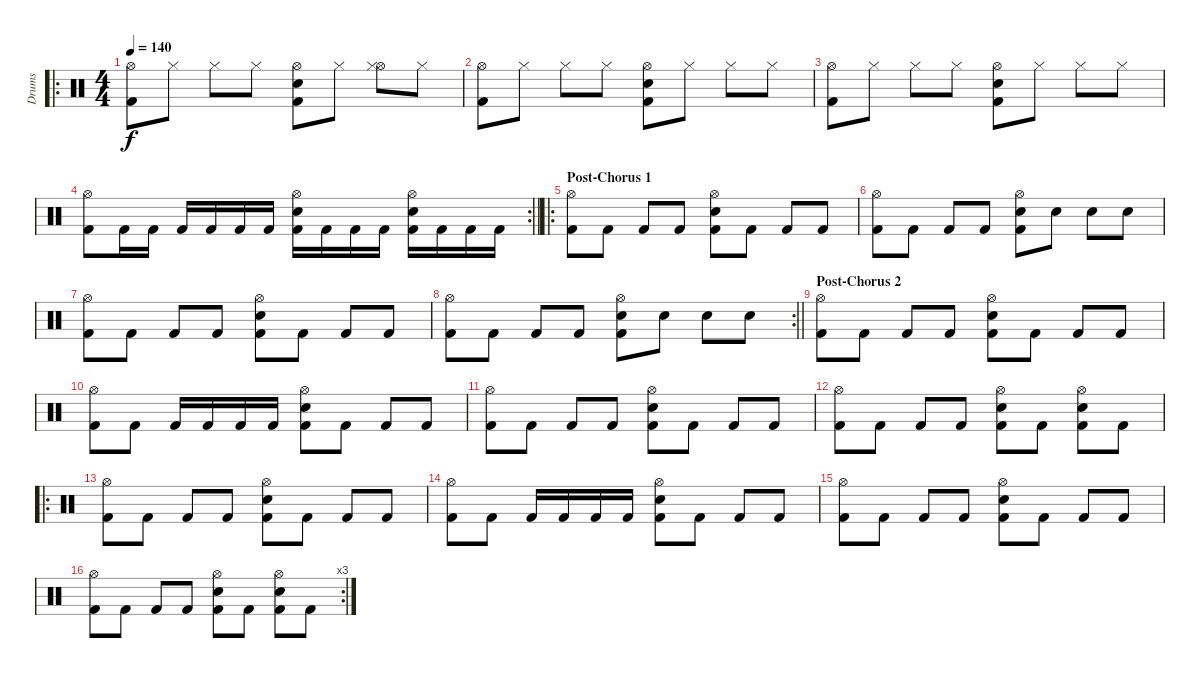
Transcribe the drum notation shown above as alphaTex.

\track ("Drums" "Drums") {instrument percussion}
\staff {score}
\articulation defaults
\ro
\ts (4 4)
\tempo 140
\clef neutral
\ks c
("Hi-Hat (open)" "Kick (hit) 2").8{dy f} "Hi-Hat (closed)".8 "Hi-Hat (closed)".8 "Hi-Hat (closed)".8 ("Hi-Hat (open)" "Snare (hit) 2" "Kick (hit) 2").8 "Hi-Hat (closed)".8 ("Hi-Hat (open)" "Hi-Hat (closed)").8 "Hi-Hat (closed)".8 |
("Hi-Hat (open)" "Kick (hit) 2").8 "Hi-Hat (closed)".8 "Hi-Hat (closed)".8 "Hi-Hat (closed)".8 ("Hi-Hat (open)" "Snare (hit) 2" "Kick (hit) 2").8 "Hi-Hat (closed)".8 "Hi-Hat (closed)".8 "Hi-Hat (closed)".8 |
("Hi-Hat (open)" "Kick (hit) 2").8 "Hi-Hat (closed)".8 "Hi-Hat (closed)".8 "Hi-Hat (closed)".8 ("Hi-Hat (open)" "Snare (hit) 2" "Kick (hit) 2").8 "Hi-Hat (closed)".8 "Hi-Hat (closed)".8 "Hi-Hat (closed)".8 |
\rc 2
\barLineRight lightlight
("Hi-Hat (open)" "Kick (hit) 2").8 "Kick (hit) 2".16 "Kick (hit) 2".16 "Kick (hit) 2".16 "Kick (hit) 2".16 "Kick (hit) 2".16 "Kick (hit) 2".16 ("Hi-Hat (open)" "Snare (hit) 2" "Kick (hit) 2").16 "Kick (hit) 2".16 "Kick (hit) 2".16 "Kick (hit) 2".16 ("Hi-Hat (open)" "Snare (hit) 2" "Kick (hit) 2").16 "Kick (hit) 2".16 "Kick (hit) 2".16 "Kick (hit) 2".16 |
\ro
\section ("" "Post-Chorus 1")
("Hi-Hat (open)" "Kick (hit) 2").8 "Kick (hit) 2".8 "Kick (hit) 2".8 "Kick (hit) 2".8 ("Hi-Hat (open)" "Snare (hit) 2" "Kick (hit) 2").8 "Kick (hit) 2".8 "Kick (hit) 2".8 "Kick (hit) 2".8 |
("Hi-Hat (open)" "Kick (hit) 2").8 "Kick (hit) 2".8 "Kick (hit) 2".8 "Kick (hit) 2".8 ("Hi-Hat (open)" "Snare (hit) 2" "Kick (hit) 2").8 "Snare (hit) 2".8 "Snare (hit) 2".8 "Snare (hit) 2".8 |
("Hi-Hat (open)" "Kick (hit) 2").8 "Kick (hit) 2".8 "Kick (hit) 2".8 "Kick (hit) 2".8 ("Hi-Hat (open)" "Snare (hit) 2" "Kick (hit) 2").8 "Kick (hit) 2".8 "Kick (hit) 2".8 "Kick (hit) 2".8 |
\rc 2
\barLineRight lightlight
("Hi-Hat (open)" "Kick (hit) 2").8 "Kick (hit) 2".8 "Kick (hit) 2".8 "Kick (hit) 2".8 ("Hi-Hat (open)" "Snare (hit) 2" "Kick (hit) 2").8 "Snare (hit) 2".8 "Snare (hit) 2".8 "Snare (hit) 2".8 |
\section ("" "Post-Chorus 2")
("Hi-Hat (open)" "Kick (hit) 2").8 "Kick (hit) 2".8 "Kick (hit) 2".8 "Kick (hit) 2".8 ("Hi-Hat (open)" "Snare (hit) 2" "Kick (hit) 2").8 "Kick (hit) 2".8 "Kick (hit) 2".8 "Kick (hit) 2".8 |
("Hi-Hat (open)" "Kick (hit) 2").8 "Kick (hit) 2".8 "Kick (hit) 2".16 "Kick (hit) 2".16 "Kick (hit) 2".16 "Kick (hit) 2".16 ("Hi-Hat (open)" "Snare (hit) 2" "Kick (hit) 2").8 "Kick (hit) 2".8 "Kick (hit) 2".8 "Kick (hit) 2".8 |
("Hi-Hat (open)" "Kick (hit) 2").8 "Kick (hit) 2".8 "Kick (hit) 2".8 "Kick (hit) 2".8 ("Hi-Hat (open)" "Snare (hit) 2" "Kick (hit) 2").8 "Kick (hit) 2".8 "Kick (hit) 2".8 "Kick (hit) 2".8 |
("Hi-Hat (open)" "Kick (hit) 2").8 "Kick (hit) 2".8 "Kick (hit) 2".8 "Kick (hit) 2".8 ("Hi-Hat (open)" "Snare (hit) 2" "Kick (hit) 2").8 "Kick (hit) 2".8 ("Hi-Hat (open)" "Snare (hit) 2" "Kick (hit) 2").8 "Kick (hit) 2".8 |
\ro
("Hi-Hat (open)" "Kick (hit) 2").8 "Kick (hit) 2".8 "Kick (hit) 2".8 "Kick (hit) 2".8 ("Hi-Hat (open)" "Snare (hit) 2" "Kick (hit) 2").8 "Kick (hit) 2".8 "Kick (hit) 2".8 "Kick (hit) 2".8 |
("Hi-Hat (open)" "Kick (hit) 2").8 "Kick (hit) 2".8 "Kick (hit) 2".16 "Kick (hit) 2".16 "Kick (hit) 2".16 "Kick (hit) 2".16 ("Hi-Hat (open)" "Snare (hit) 2" "Kick (hit) 2").8 "Kick (hit) 2".8 "Kick (hit) 2".8 "Kick (hit) 2".8 |
("Hi-Hat (open)" "Kick (hit) 2").8 "Kick (hit) 2".8 "Kick (hit) 2".8 "Kick (hit) 2".8 ("Hi-Hat (open)" "Snare (hit) 2" "Kick (hit) 2").8 "Kick (hit) 2".8 "Kick (hit) 2".8 "Kick (hit) 2".8 |
\rc 3
("Hi-Hat (open)" "Kick (hit) 2").8 "Kick (hit) 2".8 "Kick (hit) 2".8 "Kick (hit) 2".8 ("Hi-Hat (open)" "Snare (hit) 2" "Kick (hit) 2").8 "Kick (hit) 2".8 ("Hi-Hat (open)" "Snare (hit) 2" "Kick (hit) 2").8 "Kick (hit) 2".8
